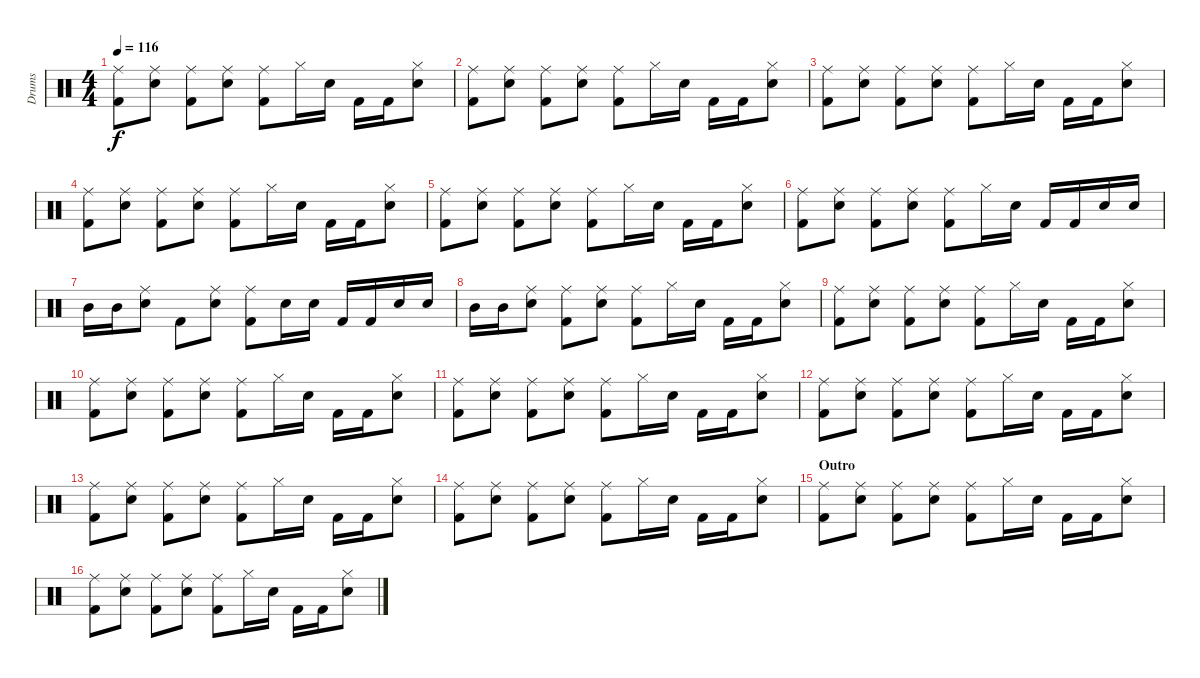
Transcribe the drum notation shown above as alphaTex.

\track ("Drums" "Drums") {instrument percussion}
\staff {score}
\articulation defaults
\ts (4 4)
\tempo 116
\clef neutral
\ks c
("Ride (middle)" "Kick (hit) 2").8{dy f} ("Ride (middle)" "Snare (hit) 2").8 ("Ride (middle)" "Kick (hit) 2").8 ("Ride (middle)" "Snare (hit) 2").8 ("Ride (middle)" "Kick (hit) 2").8 "Hi-Hat (closed)".16 "Snare (hit) 2".16 "Kick (hit) 2".16 "Kick (hit) 2".16 ("Hi-Hat (closed)" "Snare (hit) 2").8 |
("Ride (middle)" "Kick (hit) 2").8 ("Ride (middle)" "Snare (hit) 2").8 ("Ride (middle)" "Kick (hit) 2").8 ("Ride (middle)" "Snare (hit) 2").8 ("Ride (middle)" "Kick (hit) 2").8 "Hi-Hat (closed)".16 "Snare (hit) 2".16 "Kick (hit) 2".16 "Kick (hit) 2".16 ("Hi-Hat (closed)" "Snare (hit) 2").8 |
("Ride (middle)" "Kick (hit) 2").8 ("Ride (middle)" "Snare (hit) 2").8 ("Ride (middle)" "Kick (hit) 2").8 ("Ride (middle)" "Snare (hit) 2").8 ("Ride (middle)" "Kick (hit) 2").8 "Hi-Hat (closed)".16 "Snare (hit) 2".16 "Kick (hit) 2".16 "Kick (hit) 2".16 ("Hi-Hat (closed)" "Snare (hit) 2").8 |
("Ride (middle)" "Kick (hit) 2").8 ("Ride (middle)" "Snare (hit) 2").8 ("Ride (middle)" "Kick (hit) 2").8 ("Ride (middle)" "Snare (hit) 2").8 ("Ride (middle)" "Kick (hit) 2").8 "Hi-Hat (closed)".16 "Snare (hit) 2".16 "Kick (hit) 2".16 "Kick (hit) 2".16 ("Hi-Hat (closed)" "Snare (hit) 2").8 |
("Ride (middle)" "Kick (hit) 2").8 ("Ride (middle)" "Snare (hit) 2").8 ("Ride (middle)" "Kick (hit) 2").8 ("Ride (middle)" "Snare (hit) 2").8 ("Ride (middle)" "Kick (hit) 2").8 "Hi-Hat (closed)".16 "Snare (hit) 2".16 "Kick (hit) 2".16 "Kick (hit) 2".16 ("Hi-Hat (closed)" "Snare (hit) 2").8 |
("Ride (middle)" "Kick (hit) 2").8 ("Ride (middle)" "Snare (hit) 2").8 ("Ride (middle)" "Kick (hit) 2").8 ("Ride (middle)" "Snare (hit) 2").8 ("Ride (middle)" "Kick (hit) 2").8 "Hi-Hat (closed)".16 "Snare (hit) 2".16 "Kick (hit) 2".16 "Kick (hit) 2".16 "Snare (hit) 2".16 "Snare (hit) 2".16 |
"Mid Tom (hit)".16 "Mid Tom (hit)".16 ("Ride (middle)" "Snare (hit) 2").8 "Kick (hit) 2".8 ("Ride (middle)" "Snare (hit) 2").8 ("Ride (middle)" "Kick (hit) 2").8 "Snare (hit) 2".16 "Snare (hit) 2".16 "Kick (hit) 2".16 "Kick (hit) 2".16 "Snare (hit) 2".16 "Snare (hit) 2".16 |
"Mid Tom (hit)".16 "Mid Tom (hit)".16 ("Ride (middle)" "Snare (hit) 2").8 ("Ride (middle)" "Kick (hit) 2").8 ("Ride (middle)" "Snare (hit) 2").8 ("Ride (middle)" "Kick (hit) 2").8 "Hi-Hat (closed)".16 "Snare (hit) 2".16 "Kick (hit) 2".16 "Kick (hit) 2".16 ("Hi-Hat (closed)" "Snare (hit) 2").8 |
("Ride (middle)" "Kick (hit) 2").8 ("Ride (middle)" "Snare (hit) 2").8 ("Ride (middle)" "Kick (hit) 2").8 ("Ride (middle)" "Snare (hit) 2").8 ("Ride (middle)" "Kick (hit) 2").8 "Hi-Hat (closed)".16 "Snare (hit) 2".16 "Kick (hit) 2".16 "Kick (hit) 2".16 ("Hi-Hat (closed)" "Snare (hit) 2").8 |
("Ride (middle)" "Kick (hit) 2").8 ("Ride (middle)" "Snare (hit) 2").8 ("Ride (middle)" "Kick (hit) 2").8 ("Ride (middle)" "Snare (hit) 2").8 ("Ride (middle)" "Kick (hit) 2").8 "Hi-Hat (closed)".16 "Snare (hit) 2".16 "Kick (hit) 2".16 "Kick (hit) 2".16 ("Hi-Hat (closed)" "Snare (hit) 2").8 |
("Ride (middle)" "Kick (hit) 2").8 ("Ride (middle)" "Snare (hit) 2").8 ("Ride (middle)" "Kick (hit) 2").8 ("Ride (middle)" "Snare (hit) 2").8 ("Ride (middle)" "Kick (hit) 2").8 "Hi-Hat (closed)".16 "Snare (hit) 2".16 "Kick (hit) 2".16 "Kick (hit) 2".16 ("Hi-Hat (closed)" "Snare (hit) 2").8 |
("Ride (middle)" "Kick (hit) 2").8 ("Ride (middle)" "Snare (hit) 2").8 ("Ride (middle)" "Kick (hit) 2").8 ("Ride (middle)" "Snare (hit) 2").8 ("Ride (middle)" "Kick (hit) 2").8 "Hi-Hat (closed)".16 "Snare (hit) 2".16 "Kick (hit) 2".16 "Kick (hit) 2".16 ("Hi-Hat (closed)" "Snare (hit) 2").8 |
("Ride (middle)" "Kick (hit) 2").8 ("Ride (middle)" "Snare (hit) 2").8 ("Ride (middle)" "Kick (hit) 2").8 ("Ride (middle)" "Snare (hit) 2").8 ("Ride (middle)" "Kick (hit) 2").8 "Hi-Hat (closed)".16 "Snare (hit) 2".16 "Kick (hit) 2".16 "Kick (hit) 2".16 ("Hi-Hat (closed)" "Snare (hit) 2").8 |
("Ride (middle)" "Kick (hit) 2").8 ("Ride (middle)" "Snare (hit) 2").8 ("Ride (middle)" "Kick (hit) 2").8 ("Ride (middle)" "Snare (hit) 2").8 ("Ride (middle)" "Kick (hit) 2").8 "Hi-Hat (closed)".16 "Snare (hit) 2".16 "Kick (hit) 2".16 "Kick (hit) 2".16 ("Hi-Hat (closed)" "Snare (hit) 2").8 |
\section ("" "Outro")
("Ride (middle)" "Kick (hit) 2").8 ("Ride (middle)" "Snare (hit) 2").8 ("Ride (middle)" "Kick (hit) 2").8 ("Ride (middle)" "Snare (hit) 2").8 ("Ride (middle)" "Kick (hit) 2").8 "Hi-Hat (closed)".16 "Snare (hit) 2".16 "Kick (hit) 2".16 "Kick (hit) 2".16 ("Hi-Hat (closed)" "Snare (hit) 2").8 |
("Ride (middle)" "Kick (hit) 2").8 ("Ride (middle)" "Snare (hit) 2").8 ("Ride (middle)" "Kick (hit) 2").8 ("Ride (middle)" "Snare (hit) 2").8 ("Ride (middle)" "Kick (hit) 2").8 "Hi-Hat (closed)".16 "Snare (hit) 2".16 "Kick (hit) 2".16 "Kick (hit) 2".16 ("Hi-Hat (closed)" "Snare (hit) 2").8
